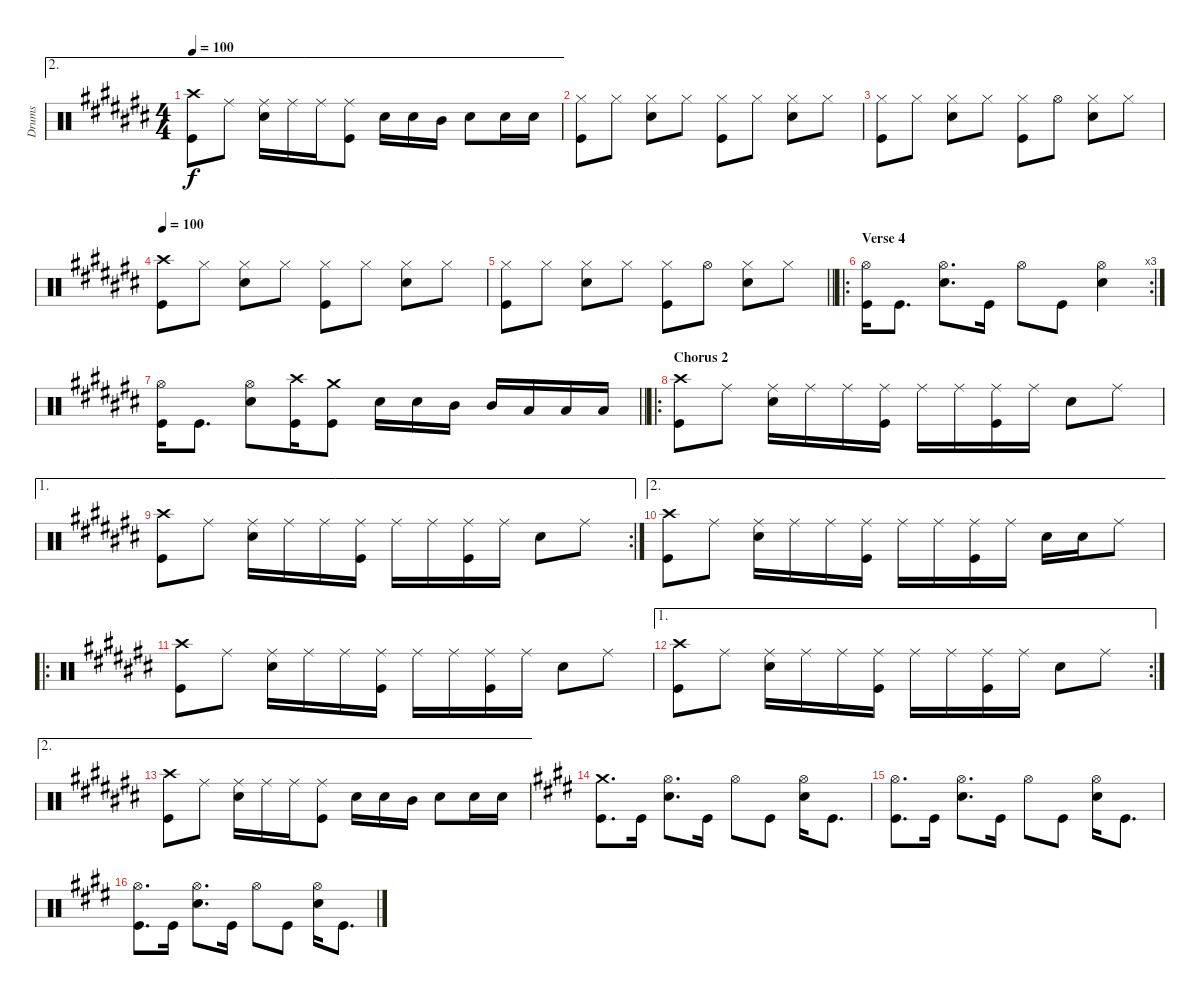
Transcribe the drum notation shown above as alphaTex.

\track ("Drums" "Drums") {instrument percussion}
\staff {score}
\articulation defaults
\ae 2
\ts (4 4)
\tempo 100
\clef neutral
\ks c#
("Crash high (hit)" "Kick (hit)").8{dy f} "Ride (middle)".8 ("Ride (middle)" "Snare (hit) 2").16 "Ride (middle)".16 "Ride (middle)".16 ("Ride (middle)" "Kick (hit)").8 "Snare (hit) 2".16 "Snare (hit) 2".16 "Mid Tom (hit)".16 "Snare (hit) 2".8 "Snare (hit) 2".16 "Snare (hit) 2".16 |
("Hi-Hat (closed)" "Kick (hit)").8 "Hi-Hat (closed)".8 ("Hi-Hat (closed)" "Snare (hit) 2").8 "Hi-Hat (closed)".8 ("Hi-Hat (closed)" "Kick (hit)").8 "Hi-Hat (closed)".8 ("Hi-Hat (closed)" "Snare (hit) 2").8 "Hi-Hat (closed)".8 |
("Hi-Hat (closed)" "Kick (hit)").8 "Hi-Hat (closed)".8 ("Hi-Hat (closed)" "Snare (hit) 2").8 "Hi-Hat (closed)".8 ("Hi-Hat (closed)" "Kick (hit)").8 "Hi-Hat (open)".8 ("Hi-Hat (closed)" "Snare (hit) 2").8 "Hi-Hat (closed)".8 |
\tempo 100
("Crash high (hit)" "Kick (hit)").8 "Hi-Hat (closed)".8 ("Hi-Hat (closed)" "Snare (hit) 2").8 "Hi-Hat (closed)".8 ("Hi-Hat (closed)" "Kick (hit)").8 "Hi-Hat (closed)".8 ("Hi-Hat (closed)" "Snare (hit) 2").8 "Hi-Hat (closed)".8 |
\barLineRight lightlight
("Hi-Hat (closed)" "Kick (hit)").8 "Hi-Hat (closed)".8 ("Hi-Hat (closed)" "Snare (hit) 2").8 "Hi-Hat (closed)".8 ("Hi-Hat (closed)" "Kick (hit)").8 "Hi-Hat (open)".8 ("Hi-Hat (closed)" "Snare (hit) 2").8 "Hi-Hat (closed)".8 |
\ro
\rc 3
\section ("" "Verse 4")
("Hi-Hat (open)" "Kick (hit)").16 "Kick (hit)".8{d} ("Hi-Hat (open)" "Snare (hit) 2").8{d} "Kick (hit)".16 "Hi-Hat (open)".8 "Kick (hit)".8 ("Hi-Hat (open)" "Snare (hit) 2").4 |
\barLineRight lightlight
("Hi-Hat (open)" "Kick (hit)").16 "Kick (hit)".8{d} ("Hi-Hat (open)" "Snare (hit) 2").8 ("Crash high (hit)" "Kick (hit)").16 ("Crash medium (hit)" "Kick (hit)").8 "Snare (hit) 2".16 "Snare (hit) 2".16 "Mid Tom (hit)".16 "Mid Tom (hit)".16 "Low Tom (hit)".16 "Low Tom (hit)".16 "Low Tom (hit)".16 |
\ro
\section ("" "Chorus 2")
("Crash high (hit)" "Kick (hit)").8 "Ride (middle)".8 ("Ride (middle)" "Snare (hit) 2").16 "Ride (middle)".16 "Ride (middle)".16 ("Ride (middle)" "Kick (hit)").16 "Ride (middle)".16 "Ride (middle)".16 ("Ride (middle)" "Kick (hit)").16 "Ride (middle)".16 "Snare (hit) 2".8 "Ride (middle)".8 |
\ae 1
\rc 2
("Crash high (hit)" "Kick (hit)").8 "Ride (middle)".8 ("Ride (middle)" "Snare (hit) 2").16 "Ride (middle)".16 "Ride (middle)".16 ("Ride (middle)" "Kick (hit)").16 "Ride (middle)".16 "Ride (middle)".16 ("Ride (middle)" "Kick (hit)").16 "Ride (middle)".16 "Snare (hit) 2".8 "Ride (middle)".8 |
\ae 2
("Crash high (hit)" "Kick (hit)").8 "Ride (middle)".8 ("Ride (middle)" "Snare (hit) 2").16 "Ride (middle)".16 "Ride (middle)".16 ("Ride (middle)" "Kick (hit)").16 "Ride (middle)".16 "Ride (middle)".16 ("Ride (middle)" "Kick (hit)").16 "Ride (middle)".16 "Snare (hit) 2".16 "Snare (hit) 2".16 "Ride (middle)".8 |
\ro
("Crash high (hit)" "Kick (hit)").8 "Ride (middle)".8 ("Ride (middle)" "Snare (hit) 2").16 "Ride (middle)".16 "Ride (middle)".16 ("Ride (middle)" "Kick (hit)").16 "Ride (middle)".16 "Ride (middle)".16 ("Ride (middle)" "Kick (hit)").16 "Ride (middle)".16 "Snare (hit) 2".8 "Ride (middle)".8 |
\ae 1
\rc 2
("Crash high (hit)" "Kick (hit)").8 "Ride (middle)".8 ("Ride (middle)" "Snare (hit) 2").16 "Ride (middle)".16 "Ride (middle)".16 ("Ride (middle)" "Kick (hit)").16 "Ride (middle)".16 "Ride (middle)".16 ("Ride (middle)" "Kick (hit)").16 "Ride (middle)".16 "Snare (hit) 2".8 "Ride (middle)".8 |
\ae 2
("Crash high (hit)" "Kick (hit)").8 "Ride (middle)".8 ("Ride (middle)" "Snare (hit) 2").16 "Ride (middle)".16 "Ride (middle)".16 ("Ride (middle)" "Kick (hit)").8 "Snare (hit) 2".16 "Snare (hit) 2".16 "Mid Tom (hit)".16 "Snare (hit) 2".8 "Snare (hit) 2".16 "Snare (hit) 2".16 |
\ks e
("Crash medium (hit)" "Kick (hit)").8{d} "Kick (hit)".16 ("Hi-Hat (open)" "Snare (hit) 2").8{d} "Kick (hit)".16 "Hi-Hat (open)".8 "Kick (hit)".8 ("Hi-Hat (open)" "Snare (hit) 2").16 "Kick (hit)".8{d} |
("Hi-Hat (open)" "Kick (hit)").8{d} "Kick (hit)".16 ("Hi-Hat (open)" "Snare (hit) 2").8{d} "Kick (hit)".16 "Hi-Hat (open)".8 "Kick (hit)".8 ("Hi-Hat (open)" "Snare (hit) 2").16 "Kick (hit)".8{d} |
("Hi-Hat (open)" "Kick (hit)").8{d} "Kick (hit)".16 ("Hi-Hat (open)" "Snare (hit) 2").8{d} "Kick (hit)".16 "Hi-Hat (open)".8 "Kick (hit)".8 ("Hi-Hat (open)" "Snare (hit) 2").16 "Kick (hit)".8{d}
